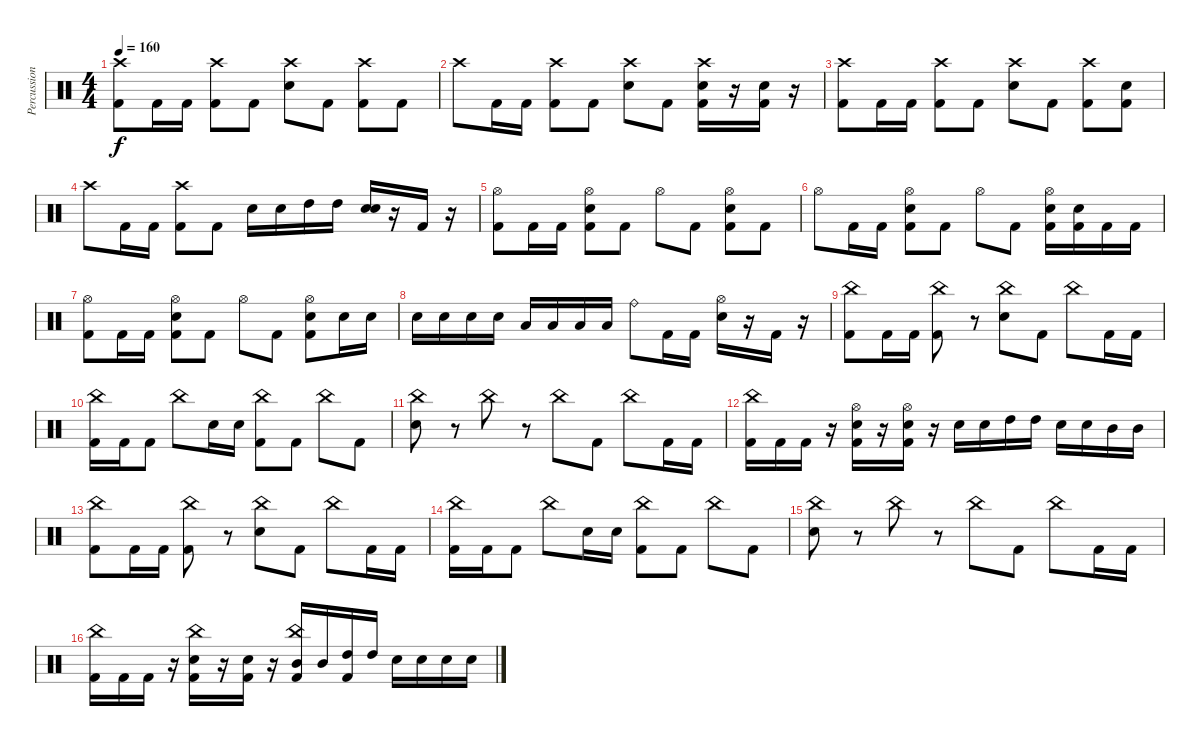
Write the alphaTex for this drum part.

\track ("Percussioni" "Percussion") {instrument percussion}
\staff {score}
\articulation defaults
\ts (4 4)
\tempo 160
\clef neutral
\ks c
("Crash high (hit)" "Kick (hit) 2").8{dy f} "Kick (hit) 2".16 "Kick (hit) 2".16 ("Crash high (hit)" "Kick (hit) 2").8 "Kick (hit) 2".8 ("Crash high (hit)" "Electric Snare (hit)").8 "Kick (hit) 2".8 ("Crash high (hit)" "Kick (hit) 2").8 "Kick (hit) 2".8 |
"Crash high (hit)".8 "Kick (hit) 2".16 "Kick (hit) 2".16 ("Crash high (hit)" "Kick (hit) 2").8 "Kick (hit) 2".8 ("Crash high (hit)" "Electric Snare (hit)").8 "Kick (hit) 2".8 ("Crash high (hit)" "Electric Snare (hit)" "Kick (hit) 2").16 r.16 ("Electric Snare (hit)" "Kick (hit) 2").16 r.16 |
("Crash high (hit)" "Kick (hit) 2").8 "Kick (hit) 2".16 "Kick (hit) 2".16 ("Crash high (hit)" "Kick (hit) 2").8 "Kick (hit) 2".8 ("Crash high (hit)" "Electric Snare (hit)").8 "Kick (hit) 2".8 ("Crash high (hit)" "Kick (hit) 2").8 ("Electric Snare (hit)" "Kick (hit) 2").8 |
"Crash high (hit)".8 "Kick (hit) 2".16 "Kick (hit) 2".16 ("Crash high (hit)" "Kick (hit) 2").8 "Kick (hit) 2".8 "Electric Snare (hit)".16 "Electric Snare (hit)".16 "High Tom (hit)".16 "High Tom (hit)".16 ("Electric Snare (hit)" "Electric Snare (hit)").16 r.16 "Kick (hit) 2".16 r.16 |
("Hi-Hat (open)" "Kick (hit) 2").8 "Kick (hit) 2".16 "Kick (hit) 2".16 ("Hi-Hat (open)" "Electric Snare (hit)" "Kick (hit) 2").8 "Kick (hit) 2".8 "Hi-Hat (open)".8 "Kick (hit) 2".8 ("Hi-Hat (open)" "Electric Snare (hit)" "Kick (hit) 2").8 "Kick (hit) 2".8 |
"Hi-Hat (open)".8 "Kick (hit) 2".16 "Kick (hit) 2".16 ("Hi-Hat (open)" "Electric Snare (hit)" "Kick (hit) 2").8 "Kick (hit) 2".8 "Hi-Hat (open)".8 "Kick (hit) 2".8 ("Hi-Hat (open)" "Electric Snare (hit)" "Kick (hit) 2").16 ("Electric Snare (hit)" "Kick (hit) 2").16 "Kick (hit) 2".16 "Kick (hit) 2".16 |
("Hi-Hat (open)" "Kick (hit) 2").8 "Kick (hit) 2".16 "Kick (hit) 2".16 ("Hi-Hat (open)" "Electric Snare (hit)" "Kick (hit) 2").8 "Kick (hit) 2".8 "Hi-Hat (open)".8 "Kick (hit) 2".8 ("Hi-Hat (open)" "Electric Snare (hit)" "Kick (hit) 2").8 "Electric Snare (hit)".16 "Electric Snare (hit)".16 |
"Electric Snare (hit)".16 "Electric Snare (hit)".16 "Electric Snare (hit)".16 "Electric Snare (hit)".16 "Low Tom (hit)".16 "Low Tom (hit)".16 "Low Tom (hit)".16 "Low Tom (hit)".16 "Ride (bell)".8 "Kick (hit) 2".16 "Kick (hit) 2".16 ("Hi-Hat (open)" "Electric Snare (hit)").16 r.16 "Kick (hit) 2".16 r.16 |
("China (hit)" "Kick (hit) 2").8 "Kick (hit) 2".16 "Kick (hit) 2".16 ("China (hit)" "Kick (hit) 2").8 r.8 ("China (hit)" "Electric Snare (hit)").8 "Kick (hit) 2".8 "China (hit)".8 "Kick (hit) 2".16 "Kick (hit) 2".16 |
("China (hit)" "Kick (hit) 2").16 "Kick (hit) 2".16 "Kick (hit) 2".8 "China (hit)".8 "Electric Snare (hit)".16 "Electric Snare (hit)".16 ("China (hit)" "Kick (hit) 2").8 "Kick (hit) 2".8 "China (hit)".8 "Kick (hit) 2".8 |
("China (hit)" "Electric Snare (hit)").8 r.8 "China (hit)".8 r.8 "China (hit)".8 "Kick (hit) 2".8 "China (hit)".8 "Kick (hit) 2".16 "Kick (hit) 2".16 |
("China (hit)" "Kick (hit) 2").16 "Kick (hit) 2".16 "Kick (hit) 2".16 r.16 ("Hi-Hat (open)" "Electric Snare (hit)" "Kick (hit) 2").16 r.16 ("Hi-Hat (open)" "Electric Snare (hit)" "Kick (hit) 2").16 r.16 "Electric Snare (hit)".16 "Electric Snare (hit)".16 "High Tom (hit)".16 "High Tom (hit)".16 "Electric Snare (hit)".16 "Electric Snare (hit)".16 "Mid Tom (hit)".16 "Mid Tom (hit)".16 |
("China (hit)" "Kick (hit) 2").8 "Kick (hit) 2".16 "Kick (hit) 2".16 ("China (hit)" "Kick (hit) 2").8 r.8 ("China (hit)" "Electric Snare (hit)").8 "Kick (hit) 2".8 "China (hit)".8 "Kick (hit) 2".16 "Kick (hit) 2".16 |
("China (hit)" "Kick (hit) 2").16 "Kick (hit) 2".16 "Kick (hit) 2".8 "China (hit)".8 "Electric Snare (hit)".16 "Electric Snare (hit)".16 ("China (hit)" "Kick (hit) 2").8 "Kick (hit) 2".8 "China (hit)".8 "Kick (hit) 2".8 |
("China (hit)" "Electric Snare (hit)").8 r.8 "China (hit)".8 r.8 "China (hit)".8 "Kick (hit) 2".8 "China (hit)".8 "Kick (hit) 2".16 "Kick (hit) 2".16 |
("China (hit)" "Kick (hit) 2").16 "Kick (hit) 2".16 "Kick (hit) 2".16 r.16 ("China (hit)" "Electric Snare (hit)" "Kick (hit) 2").16 r.16 ("Electric Snare (hit)" "Kick (hit) 2").16 r.16 ("China (hit)" "Mid Tom (hit)" "Kick (hit) 2").16 "Mid Tom (hit)".16 ("High Tom (hit)" "Kick (hit) 2").16 "High Tom (hit)".16 "Electric Snare (hit)".16 "Electric Snare (hit)".16 "Electric Snare (hit)".16 "Electric Snare (hit)".16
